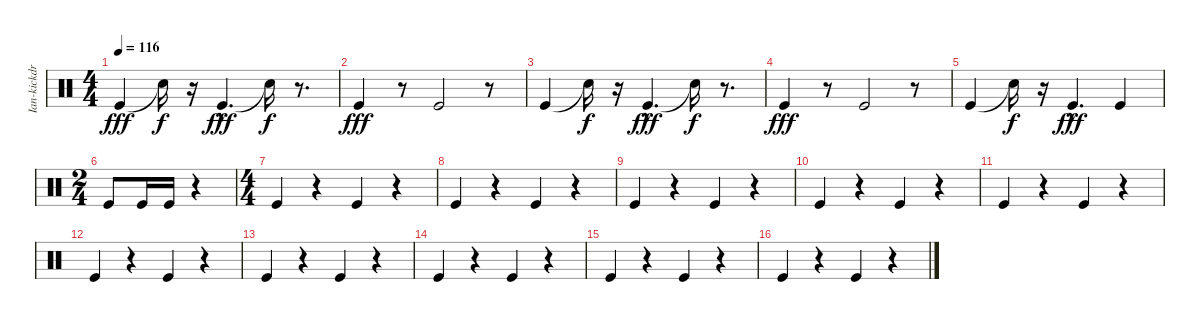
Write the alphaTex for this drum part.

\track ("Ian-kickdrum" "Ian-kickdr") {instrument percussion}
\staff {score}
\articulation defaults
\ts (4 4)
\tempo 116
\clef neutral
\ks c "Kick (hit)".4{dy fff} "Snare (hit)"{t}.16{dy f}
r.16 "Kick (hit)"{hac}.4{d dy fff} "Snare (hit)"{t}.16{dy f} r.8{d} |
"Kick (hit)".4{dy fff} r.8 "Kick (hit)".2 r.8 |
"Kick (hit)".4 "Snare (hit)"{t}.16{dy f} r.16 "Kick (hit)"{hac}.4{d dy fff} "Snare (hit)"{t}.16{dy f} r.8{d} |
"Kick (hit)".4{dy fff} r.8 "Kick (hit)".2 r.8 |
"Kick (hit)".4 "Snare (hit)"{t}.16{dy f} r.16 "Kick (hit)"{hac}.4{d dy fff} "Kick (hit)".4 |
\ts (2 4)
"Kick (hit)".8 "Kick (hit)".16 "Kick (hit)".16 r.4 |
\ts (4 4)
"Kick (hit)".4 r.4 "Kick (hit)".4 r.4 |
"Kick (hit)".4 r.4 "Kick (hit)".4 r.4 |
"Kick (hit)".4 r.4 "Kick (hit)".4 r.4 |
"Kick (hit)".4 r.4 "Kick (hit)".4 r.4 |
"Kick (hit)".4 r.4 "Kick (hit)".4 r.4 |
"Kick (hit)".4 r.4 "Kick (hit)".4 r.4 |
"Kick (hit)".4 r.4 "Kick (hit)".4 r.4 |
"Kick (hit)".4 r.4 "Kick (hit)".4 r.4 |
"Kick (hit)".4 r.4 "Kick (hit)".4 r.4 |
"Kick (hit)".4 r.4 "Kick (hit)".4 r.4
